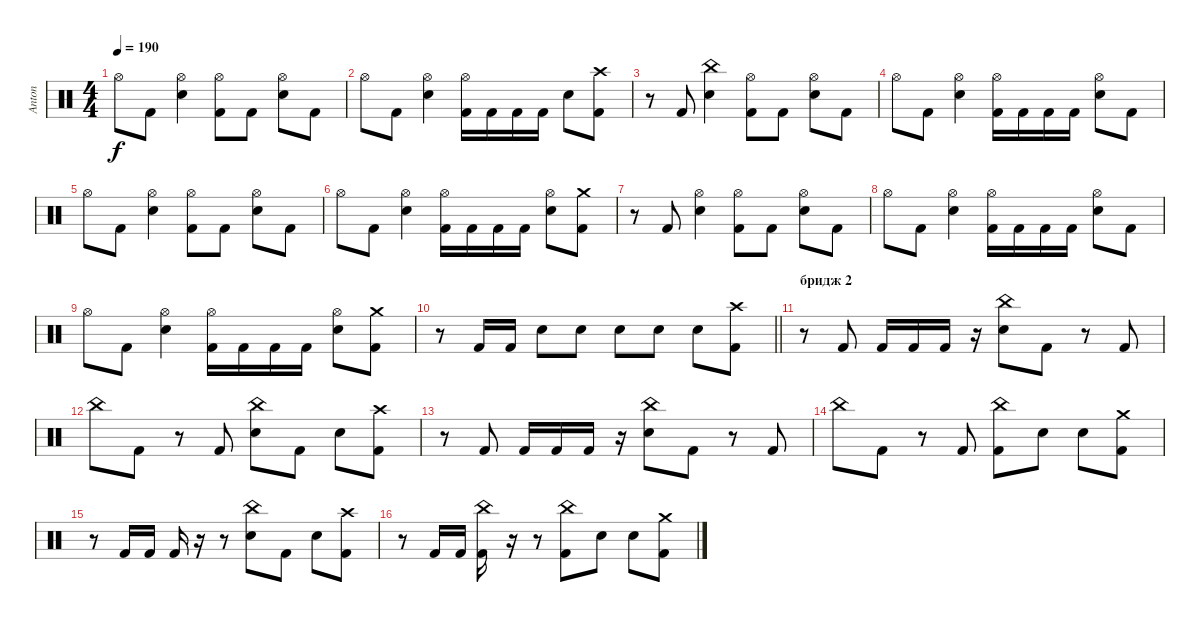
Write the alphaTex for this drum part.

\track ("Anton" "Anton") {instrument percussion}
\staff {score}
\articulation defaults
\ts (4 4)
\tempo 190
\clef neutral
\ks c "Hi-Hat (open)".8{dy f} "Kick (hit) 2".8
("Hi-Hat (open)" "Electric Snare (hit)").4 ("Hi-Hat (open)" "Kick (hit) 2").8 "Kick (hit) 2".8 ("Hi-Hat (open)" "Electric Snare (hit)").8 "Kick (hit) 2".8 |
"Hi-Hat (open)".8 "Kick (hit) 2".8 ("Hi-Hat (open)" "Electric Snare (hit)").4 ("Hi-Hat (open)" "Kick (hit) 2").16 "Kick (hit) 2".16 "Kick (hit) 2".16 "Kick (hit) 2".16 "Electric Snare (hit)".8 ("Crash high (hit)" "Kick (hit) 2").8 |
r.8 "Kick (hit) 2".8 ("China (hit)" "Electric Snare (hit)").4 ("Hi-Hat (open)" "Kick (hit) 2").8 "Kick (hit) 2".8 ("Hi-Hat (open)" "Electric Snare (hit)").8 "Kick (hit) 2".8 |
"Hi-Hat (open)".8 "Kick (hit) 2".8 ("Hi-Hat (open)" "Electric Snare (hit)").4 ("Hi-Hat (open)" "Kick (hit) 2").16 "Kick (hit) 2".16 "Kick (hit) 2".16 "Kick (hit) 2".16 ("Hi-Hat (open)" "Electric Snare (hit)").8 "Kick (hit) 2".8 |
"Hi-Hat (open)".8 "Kick (hit) 2".8 ("Hi-Hat (open)" "Electric Snare (hit)").4 ("Hi-Hat (open)" "Kick (hit) 2").8 "Kick (hit) 2".8 ("Hi-Hat (open)" "Electric Snare (hit)").8 "Kick (hit) 2".8 |
"Hi-Hat (open)".8 "Kick (hit) 2".8 ("Hi-Hat (open)" "Electric Snare (hit)").4 ("Hi-Hat (open)" "Kick (hit) 2").16 "Kick (hit) 2".16 "Kick (hit) 2".16 "Kick (hit) 2".16 ("Hi-Hat (open)" "Electric Snare (hit)").8 ("Crash medium (hit)" "Kick (hit) 2").8 |
r.8 "Kick (hit) 2".8 ("Hi-Hat (open)" "Electric Snare (hit)").4 ("Hi-Hat (open)" "Kick (hit) 2").8 "Kick (hit) 2".8 ("Hi-Hat (open)" "Electric Snare (hit)").8 "Kick (hit) 2".8 |
"Hi-Hat (open)".8 "Kick (hit) 2".8 ("Hi-Hat (open)" "Electric Snare (hit)").4 ("Hi-Hat (open)" "Kick (hit) 2").16 "Kick (hit) 2".16 "Kick (hit) 2".16 "Kick (hit) 2".16 ("Hi-Hat (open)" "Electric Snare (hit)").8 "Kick (hit) 2".8 |
"Hi-Hat (open)".8 "Kick (hit) 2".8 ("Hi-Hat (open)" "Electric Snare (hit)").4 ("Hi-Hat (open)" "Kick (hit) 2").16 "Kick (hit) 2".16 "Kick (hit) 2".16 "Kick (hit) 2".16 ("Hi-Hat (open)" "Electric Snare (hit)").8 ("Crash medium (hit)" "Kick (hit) 2").8 |
\barLineRight lightlight
r.8 "Kick (hit) 2".16 "Kick (hit) 2".16 "Electric Snare (hit)".8 "Electric Snare (hit)".8 "Electric Snare (hit)".8 "Electric Snare (hit)".8 "Electric Snare (hit)".8 ("Crash high (hit)" "Kick (hit) 2").8 |
\section ("" "бридж 2")
r.8 "Kick (hit) 2".8 "Kick (hit) 2".16 "Kick (hit) 2".16 "Kick (hit) 2".16 r.16 ("China (hit)" "Electric Snare (hit)").8 "Kick (hit) 2".8 r.8 "Kick (hit) 2".8 |
"China (hit)".8 "Kick (hit) 2".8 r.8 "Kick (hit) 2".8 ("China (hit)" "Electric Snare (hit)").8 "Kick (hit) 2".8 "Electric Snare (hit)".8 ("Crash high (hit)" "Kick (hit) 2").8 |
r.8 "Kick (hit) 2".8 "Kick (hit) 2".16 "Kick (hit) 2".16 "Kick (hit) 2".16 r.16 ("China (hit)" "Electric Snare (hit)").8 "Kick (hit) 2".8 r.8 "Kick (hit) 2".8 |
"China (hit)".8 "Kick (hit) 2".8 r.8 "Kick (hit) 2".8 ("China (hit)" "Kick (hit) 2").8 "Electric Snare (hit)".8 "Electric Snare (hit)".8 ("Crash medium (hit)" "Kick (hit) 2").8 |
r.8 "Kick (hit) 2".16 "Kick (hit) 2".16 "Kick (hit) 2".16 r.16 r.8 ("China (hit)" "Electric Snare (hit)").8 "Kick (hit) 2".8 "Electric Snare (hit)".8 ("Crash high (hit)" "Kick (hit) 2").8 |
r.8 "Kick (hit) 2".16 "Kick (hit) 2".16 ("China (hit)" "Kick (hit) 2").16 r.16 r.8 ("China (hit)" "Kick (hit) 2").8 "Electric Snare (hit)".8 "Electric Snare (hit)".8 ("Crash medium (hit)" "Kick (hit) 2").8
